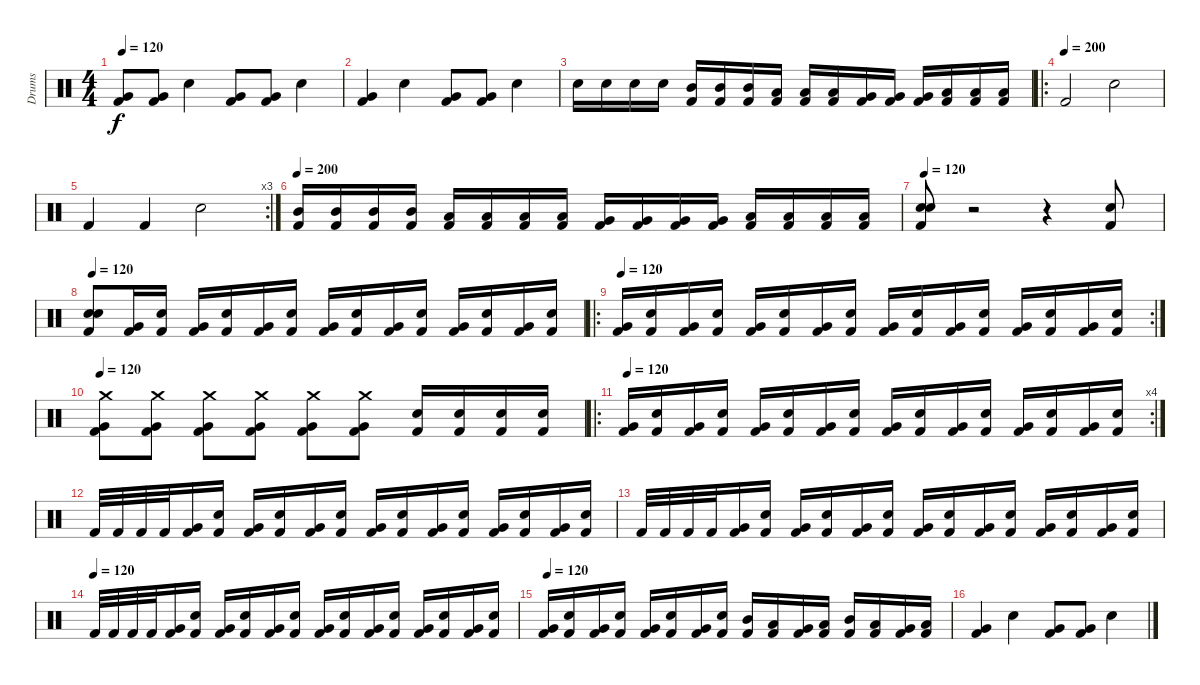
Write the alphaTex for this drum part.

\track ("Drums" "Drums") {instrument percussion}
\staff {score}
\articulation defaults
\ts (4 4)
\tempo 120
\clef neutral
\ks c
("Very Low Tom (hit)" "Kick (hit) 2").8{dy f} ("Very Low Tom (hit)" "Kick (hit) 2").8 "Snare (hit) 2".4 ("Very Low Tom (hit)" "Kick (hit) 2").8 ("Very Low Tom (hit)" "Kick (hit) 2").8 "Snare (hit) 2".4 |
("Very Low Tom (hit)" "Kick (hit) 2").4 "Snare (hit) 2".4 ("Very Low Tom (hit)" "Kick (hit) 2").8 ("Very Low Tom (hit)" "Kick (hit) 2").8 "Snare (hit) 2".4 |
"Snare (hit) 2".16 "Snare (hit) 2".16 "Snare (hit) 2".16 "Snare (hit) 2".16 ("Mid Tom (hit)" "Kick (hit) 2").16 ("Mid Tom (hit)" "Kick (hit) 2").16 ("Mid Tom (hit)" "Kick (hit) 2").16 ("Low Tom (hit)" "Kick (hit) 2").16 ("Low Tom (hit)" "Kick (hit) 2").16 ("Low Tom (hit)" "Kick (hit) 2").16 ("Very Low Tom (hit)" "Kick (hit) 2").16 ("Very Low Tom (hit)" "Kick (hit) 2").16 ("Very Low Tom (hit)" "Kick (hit) 2").16 ("Low Floor Tom (hit)" "Kick (hit) 2").16 ("Low Floor Tom (hit)" "Kick (hit) 2").16 ("Low Floor Tom (hit)" "Kick (hit) 2").16 |
\ro
\tempo (200)
"Kick (hit) 2".2 "Snare (hit) 2".2 |
\rc 3 "Kick (hit) 2".4 "Kick (hit) 2".4 "Snare (hit) 2".2
|
\tempo 200
("Mid Tom (hit)" "Kick (hit) 2").16 ("Mid Tom (hit)" "Kick (hit) 2").16 ("Mid Tom (hit)" "Kick (hit) 2").16 ("Mid Tom (hit)" "Kick (hit) 2").16 ("Low Tom (hit)" "Kick (hit) 2").16 ("Low Tom (hit)" "Kick (hit) 2").16 ("Low Tom (hit)" "Kick (hit) 2").16 ("Low Tom (hit)" "Kick (hit) 2").16 ("Very Low Tom (hit)" "Kick (hit) 2").16 ("Very Low Tom (hit)" "Kick (hit) 2").16 ("Very Low Tom (hit)" "Kick (hit) 2").16 ("Very Low Tom (hit)" "Kick (hit) 2").16 ("Low Floor Tom (hit)" "Kick (hit) 2").16 ("Low Floor Tom (hit)" "Kick (hit) 2").16 ("Low Floor Tom (hit)" "Kick (hit) 2").16 ("Low Floor Tom (hit)" "Kick (hit) 2").16 |
\tempo 120
("Kick (hit) 2" "Snare (hit) 2" "Snare (hit) 2").8 r.2 r.4 ("Snare (hit) 2" "Kick (hit) 2").8 |
\tempo 120
("Snare (hit) 2" "Snare (hit) 2" "Kick (hit) 2").8 ("Very Low Tom (hit)" "Kick (hit) 2").16 ("Snare (hit) 2" "Kick (hit) 2").16 ("Very Low Tom (hit)" "Kick (hit) 2").16 ("Snare (hit) 2" "Kick (hit) 2").16 ("Very Low Tom (hit)" "Kick (hit) 2").16 ("Snare (hit) 2" "Kick (hit) 2").16 ("Very Low Tom (hit)" "Kick (hit) 2").16 ("Snare (hit) 2" "Kick (hit) 2").16 ("Very Low Tom (hit)" "Kick (hit) 2").16 ("Snare (hit) 2" "Kick (hit) 2").16 ("Very Low Tom (hit)" "Kick (hit) 2").16 ("Snare (hit) 2" "Kick (hit) 2").16 ("Very Low Tom (hit)" "Kick (hit) 2").16 ("Snare (hit) 2" "Kick (hit) 2").16 |
\ro
\rc 2
\tempo 120
("Very Low Tom (hit)" "Kick (hit) 2").16 ("Snare (hit) 2" "Kick (hit) 2").16 ("Very Low Tom (hit)" "Kick (hit) 2").16 ("Snare (hit) 2" "Kick (hit) 2").16 ("Very Low Tom (hit)" "Kick (hit) 2").16 ("Snare (hit) 2" "Kick (hit) 2").16 ("Very Low Tom (hit)" "Kick (hit) 2").16 ("Snare (hit) 2" "Kick (hit) 2").16 ("Very Low Tom (hit)" "Kick (hit) 2").16 ("Snare (hit) 2" "Kick (hit) 2").16 ("Very Low Tom (hit)" "Kick (hit) 2").16 ("Snare (hit) 2" "Kick (hit) 2").16 ("Very Low Tom (hit)" "Kick (hit) 2").16 ("Snare (hit) 2" "Kick (hit) 2").16 ("Very Low Tom (hit)" "Kick (hit) 2").16 ("Snare (hit) 2" "Kick (hit) 2").16 |
\tempo 120
("Kick (hit) 2" "Crash medium (hit)" "Very Low Tom (hit)").8 ("Kick (hit) 2" "Crash medium (hit)" "Very Low Tom (hit)").8 ("Kick (hit) 2" "Crash medium (hit)" "Very Low Tom (hit)").8 ("Kick (hit) 2" "Crash medium (hit)" "Very Low Tom (hit)").8 ("Kick (hit) 2" "Crash medium (hit)" "Very Low Tom (hit)").8 ("Kick (hit) 2" "Crash medium (hit)" "Very Low Tom (hit)").8 ("Snare (hit) 2" "Kick (hit) 2").16 ("Snare (hit) 2" "Kick (hit) 2").16 ("Snare (hit) 2" "Kick (hit) 2").16 ("Snare (hit) 2" "Kick (hit) 2").16 |
\ro
\rc 4
\tempo 120
("Very Low Tom (hit)" "Kick (hit) 2").16 ("Snare (hit) 2" "Kick (hit) 2").16 ("Very Low Tom (hit)" "Kick (hit) 2").16 ("Snare (hit) 2" "Kick (hit) 2").16 ("Very Low Tom (hit)" "Kick (hit) 2").16 ("Snare (hit) 2" "Kick (hit) 2").16 ("Very Low Tom (hit)" "Kick (hit) 2").16 ("Snare (hit) 2" "Kick (hit) 2").16 ("Very Low Tom (hit)" "Kick (hit) 2").16 ("Snare (hit) 2" "Kick (hit) 2").16 ("Very Low Tom (hit)" "Kick (hit) 2").16 ("Snare (hit) 2" "Kick (hit) 2").16 ("Very Low Tom (hit)" "Kick (hit) 2").16 ("Snare (hit) 2" "Kick (hit) 2").16 ("Very Low Tom (hit)" "Kick (hit) 2").16 ("Snare (hit) 2" "Kick (hit) 2").16 |
"Kick (hit) 2".32 "Kick (hit) 2".32 "Kick (hit) 2".32 "Kick (hit) 2".32 ("Very Low Tom (hit)" "Kick (hit) 2").16 ("Snare (hit) 2" "Kick (hit) 2").16 ("Very Low Tom (hit)" "Kick (hit) 2").16 ("Snare (hit) 2" "Kick (hit) 2").16 ("Very Low Tom (hit)" "Kick (hit) 2").16 ("Snare (hit) 2" "Kick (hit) 2").16 ("Very Low Tom (hit)" "Kick (hit) 2").16 ("Snare (hit) 2" "Kick (hit) 2").16 ("Very Low Tom (hit)" "Kick (hit) 2").16 ("Snare (hit) 2" "Kick (hit) 2").16 ("Very Low Tom (hit)" "Kick (hit) 2").16 ("Snare (hit) 2" "Kick (hit) 2").16 ("Very Low Tom (hit)" "Kick (hit) 2").16 ("Snare (hit) 2" "Kick (hit) 2").16 |
"Kick (hit) 2".32 "Kick (hit) 2".32 "Kick (hit) 2".32 "Kick (hit) 2".32 ("Very Low Tom (hit)" "Kick (hit) 2").16 ("Snare (hit) 2" "Kick (hit) 2").16 ("Very Low Tom (hit)" "Kick (hit) 2").16 ("Snare (hit) 2" "Kick (hit) 2").16 ("Very Low Tom (hit)" "Kick (hit) 2").16 ("Snare (hit) 2" "Kick (hit) 2").16 ("Very Low Tom (hit)" "Kick (hit) 2").16 ("Snare (hit) 2" "Kick (hit) 2").16 ("Very Low Tom (hit)" "Kick (hit) 2").16 ("Snare (hit) 2" "Kick (hit) 2").16 ("Very Low Tom (hit)" "Kick (hit) 2").16 ("Snare (hit) 2" "Kick (hit) 2").16 ("Very Low Tom (hit)" "Kick (hit) 2").16 ("Snare (hit) 2" "Kick (hit) 2").16 |
\tempo (120)
"Kick (hit) 2".32 "Kick (hit) 2".32 "Kick (hit) 2".32 "Kick (hit) 2".32 ("Very Low Tom (hit)" "Kick (hit) 2").16 ("Snare (hit) 2" "Kick (hit) 2").16 ("Very Low Tom (hit)" "Kick (hit) 2").16 ("Snare (hit) 2" "Kick (hit) 2").16 ("Very Low Tom (hit)" "Kick (hit) 2").16 ("Snare (hit) 2" "Kick (hit) 2").16 ("Very Low Tom (hit)" "Kick (hit) 2").16 ("Snare (hit) 2" "Kick (hit) 2").16 ("Very Low Tom (hit)" "Kick (hit) 2").16 ("Snare (hit) 2" "Kick (hit) 2").16 ("Very Low Tom (hit)" "Kick (hit) 2").16 ("Snare (hit) 2" "Kick (hit) 2").16 ("Very Low Tom (hit)" "Kick (hit) 2").16 ("Snare (hit) 2" "Kick (hit) 2").16 |
\tempo 120
("Very Low Tom (hit)" "Kick (hit) 2").16 ("Snare (hit) 2" "Kick (hit) 2").16 ("Very Low Tom (hit)" "Kick (hit) 2").16 ("Snare (hit) 2" "Kick (hit) 2").16 ("Very Low Tom (hit)" "Kick (hit) 2").16 ("Snare (hit) 2" "Kick (hit) 2").16 ("Very Low Tom (hit)" "Kick (hit) 2").16 ("Snare (hit) 2" "Kick (hit) 2").16 ("Mid Tom (hit)" "Kick (hit) 2").16 ("Low Tom (hit)" "Kick (hit) 2").16 ("Very Low Tom (hit)" "Kick (hit) 2").16 ("Low Floor Tom (hit)" "Kick (hit) 2").16 ("Mid Tom (hit)" "Kick (hit) 2").16 ("Low Tom (hit)" "Kick (hit) 2").16 ("Very Low Tom (hit)" "Kick (hit) 2").16 ("Low Floor Tom (hit)" "Kick (hit) 2").16 |
("Very Low Tom (hit)" "Kick (hit) 2").4 "Snare (hit) 2".4 ("Very Low Tom (hit)" "Kick (hit) 2").8 ("Very Low Tom (hit)" "Kick (hit) 2").8 "Snare (hit) 2".4
